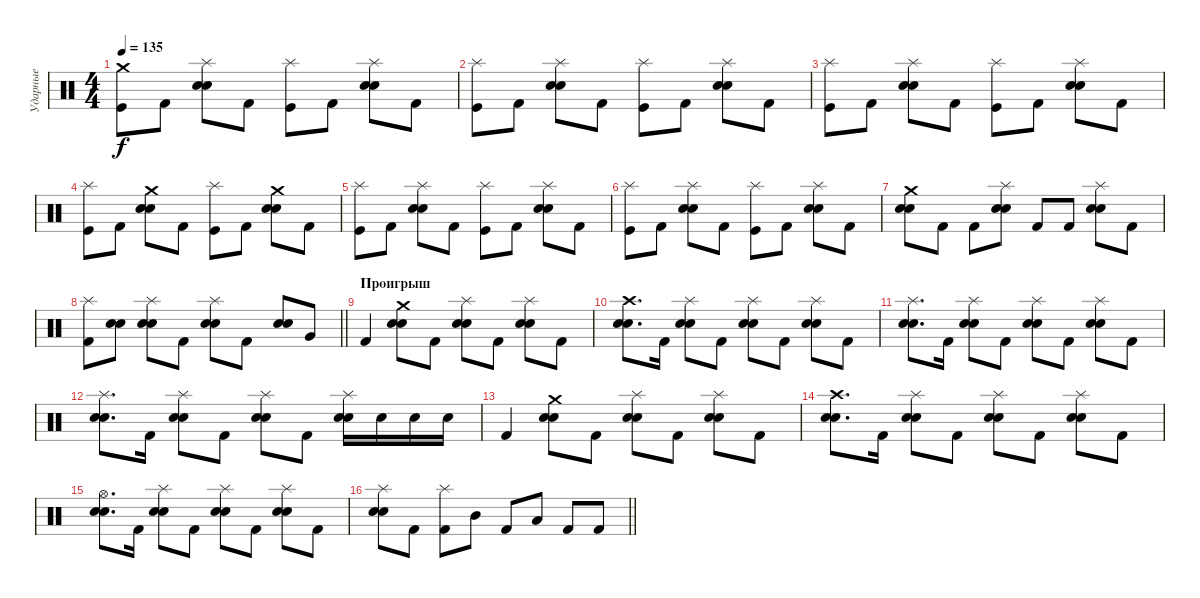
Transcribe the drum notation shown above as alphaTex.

\track ("Ударные" "Ударные") {instrument percussion}
\staff {score}
\articulation defaults
\ts (4 4)
\tempo 135
\clef neutral
\ks c
("Crash medium (hit)" "Kick (hit)").8{dy f} "Kick (hit) 2".8 ("Splash (hit)" "Electric Snare (hit)" "Snare (hit) 2").8 "Kick (hit) 2".8 ("Splash (hit)" "Kick (hit)").8 "Kick (hit) 2".8 ("Splash (hit)" "Electric Snare (hit)" "Snare (hit) 2").8 "Kick (hit) 2".8 |
("Splash (hit)" "Kick (hit)").8 "Kick (hit) 2".8 ("Splash (hit)" "Electric Snare (hit)" "Snare (hit) 2").8 "Kick (hit) 2".8 ("Splash (hit)" "Kick (hit)").8 "Kick (hit) 2".8 ("Splash (hit)" "Electric Snare (hit)" "Snare (hit) 2").8 "Kick (hit) 2".8 |
("Splash (hit)" "Kick (hit)").8 "Kick (hit) 2".8 ("Splash (hit)" "Electric Snare (hit)" "Snare (hit) 2").8 "Kick (hit) 2".8 ("Splash (hit)" "Kick (hit)").8 "Kick (hit) 2".8 ("Splash (hit)" "Electric Snare (hit)" "Snare (hit) 2").8 "Kick (hit) 2".8 |
("Splash (hit)" "Kick (hit)").8 "Kick (hit) 2".8 ("Crash medium (hit)" "Electric Snare (hit)" "Snare (hit) 2").8 "Kick (hit) 2".8 ("Splash (hit)" "Kick (hit)").8 "Kick (hit) 2".8 ("Crash medium (hit)" "Electric Snare (hit)" "Snare (hit) 2").8 "Kick (hit) 2".8 |
("Splash (hit)" "Kick (hit)").8 "Kick (hit) 2".8 ("Splash (hit)" "Electric Snare (hit)" "Snare (hit) 2").8 "Kick (hit) 2".8 ("Splash (hit)" "Kick (hit)").8 "Kick (hit) 2".8 ("Splash (hit)" "Electric Snare (hit)" "Snare (hit) 2").8 "Kick (hit) 2".8 |
("Splash (hit)" "Kick (hit)").8 "Kick (hit) 2".8 ("Splash (hit)" "Electric Snare (hit)" "Snare (hit) 2").8 "Kick (hit) 2".8 ("Splash (hit)" "Kick (hit)").8 "Kick (hit) 2".8 ("Splash (hit)" "Electric Snare (hit)" "Snare (hit) 2").8 "Kick (hit) 2".8 |
("Crash medium (hit)" "Electric Snare (hit)" "Snare (hit) 2").8 "Kick (hit) 2".8 "Kick (hit) 2".8 ("Splash (hit)" "Electric Snare (hit)" "Snare (hit) 2").8 "Kick (hit) 2".8 "Kick (hit) 2".8 ("Splash (hit)" "Electric Snare (hit)" "Snare (hit) 2").8 "Kick (hit) 2".8 |
\barLineRight lightlight
("Splash (hit)" "Kick (hit) 2").8 ("Electric Snare (hit)" "Snare (hit) 2").8 ("Splash (hit)" "Electric Snare (hit)" "Snare (hit) 2").8 "Kick (hit) 2".8 ("Splash (hit)" "Electric Snare (hit)" "Snare (hit) 2").8 "Kick (hit) 2".8 ("Electric Snare (hit)" "Snare (hit) 2").8 "Very Low Tom (hit)".8 |
\section ("" "Проигрыш")
"Kick (hit) 2".4 ("Crash medium (hit)" "Electric Snare (hit)" "Snare (hit) 2").8 "Kick (hit) 2".8 ("Splash (hit)" "Electric Snare (hit)" "Snare (hit) 2").8 "Kick (hit) 2".8 ("Splash (hit)" "Electric Snare (hit)" "Snare (hit) 2").8 "Kick (hit) 2".8 |
("Crash high (hit)" "Electric Snare (hit)" "Snare (hit) 2").8{d} "Kick (hit) 2".16 ("Splash (hit)" "Electric Snare (hit)" "Snare (hit) 2").8 "Kick (hit) 2".8 ("Splash (hit)" "Electric Snare (hit)" "Snare (hit) 2").8 "Kick (hit) 2".8 ("Splash (hit)" "Electric Snare (hit)" "Snare (hit) 2").8 "Kick (hit) 2".8 |
("Splash (hit)" "Electric Snare (hit)" "Snare (hit) 2").8{d} "Kick (hit) 2".16 ("Splash (hit)" "Electric Snare (hit)" "Snare (hit) 2").8 "Kick (hit) 2".8 ("Splash (hit)" "Electric Snare (hit)" "Snare (hit) 2").8 "Kick (hit) 2".8 ("Splash (hit)" "Electric Snare (hit)" "Snare (hit) 2").8 "Kick (hit) 2".8 |
("Splash (hit)" "Electric Snare (hit)" "Snare (hit) 2").8{d} "Kick (hit) 2".16 ("Splash (hit)" "Electric Snare (hit)" "Snare (hit) 2").8 "Kick (hit) 2".8 ("Splash (hit)" "Electric Snare (hit)" "Snare (hit) 2").8 "Kick (hit) 2".8 ("Splash (hit)" "Electric Snare (hit)" "Snare (hit) 2").16 "Electric Snare (hit)".16 "Electric Snare (hit)".16 "Electric Snare (hit)".16 |
"Kick (hit) 2".4 ("Crash medium (hit)" "Electric Snare (hit)" "Snare (hit) 2").8 "Kick (hit) 2".8 ("Splash (hit)" "Electric Snare (hit)" "Snare (hit) 2").8 "Kick (hit) 2".8 ("Splash (hit)" "Electric Snare (hit)" "Snare (hit) 2").8 "Kick (hit) 2".8 |
("Crash high (hit)" "Electric Snare (hit)" "Snare (hit) 2").8{d} "Kick (hit) 2".16 ("Splash (hit)" "Electric Snare (hit)" "Snare (hit) 2").8 "Kick (hit) 2".8 ("Splash (hit)" "Electric Snare (hit)" "Snare (hit) 2").8 "Kick (hit) 2".8 ("Splash (hit)" "Electric Snare (hit)" "Snare (hit) 2").8 "Kick (hit) 2".8 |
("Hi-Hat (open)" "Electric Snare (hit)" "Snare (hit) 2").8{d} "Kick (hit) 2".16 ("Splash (hit)" "Electric Snare (hit)" "Snare (hit) 2").8 "Kick (hit) 2".8 ("Splash (hit)" "Electric Snare (hit)" "Snare (hit) 2").8 "Kick (hit) 2".8 ("Splash (hit)" "Electric Snare (hit)" "Snare (hit) 2").8 "Kick (hit) 2".8 |
\barLineRight lightlight
("Splash (hit)" "Electric Snare (hit)" "Snare (hit) 2").8 "Kick (hit) 2".8 ("Splash (hit)" "Kick (hit) 2").8 "Mid Tom (hit)".8 "Kick (hit) 2".8 "Low Tom (hit)".8 "Kick (hit) 2".8 "Kick (hit) 2".8
